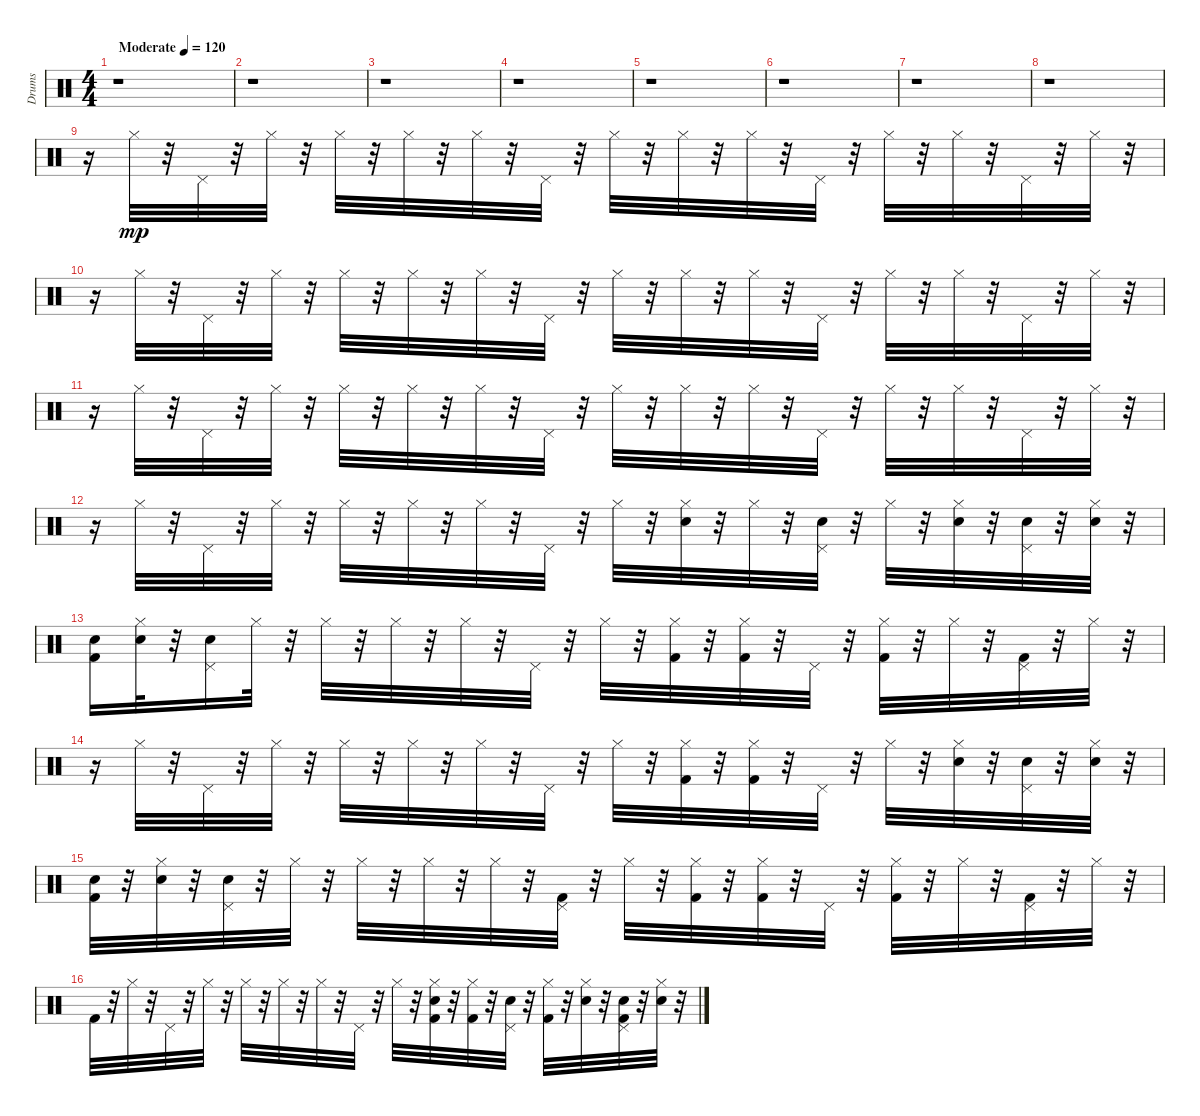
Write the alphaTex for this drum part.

\track ("Drums" "Drums") {instrument percussion}
\staff {score}
\articulation defaults
\ts (4 4)
\tempo (120 "Moderate")
\clef neutral
\ks c
r.1{dy mp} |
r.1 |
r.1 |
r.1 |
r.1 |
r.1 |
r.1 |
r.1 |
r.16 "Hi-Hat (closed)".32 r.32 "Pedal Hi-Hat (hit)".32 r.32 "Hi-Hat (closed)".32 r.32 "Hi-Hat (closed)".32 r.32 "Hi-Hat (closed)".32 r.32 "Hi-Hat (closed)".32 r.32 "Pedal Hi-Hat (hit)".32 r.32 "Hi-Hat (closed)".32 r.32 "Hi-Hat (closed)".32 r.32 "Hi-Hat (closed)".32 r.32 "Pedal Hi-Hat (hit)".32 r.32 "Hi-Hat (closed)".32 r.32 "Hi-Hat (closed)".32 r.32 "Pedal Hi-Hat (hit)".32 r.32 "Hi-Hat (closed)".32 r.32 |
r.16 "Hi-Hat (closed)".32 r.32 "Pedal Hi-Hat (hit)".32 r.32 "Hi-Hat (closed)".32 r.32 "Hi-Hat (closed)".32 r.32 "Hi-Hat (closed)".32 r.32 "Hi-Hat (closed)".32 r.32 "Pedal Hi-Hat (hit)".32 r.32 "Hi-Hat (closed)".32 r.32 "Hi-Hat (closed)".32 r.32 "Hi-Hat (closed)".32 r.32 "Pedal Hi-Hat (hit)".32 r.32 "Hi-Hat (closed)".32 r.32 "Hi-Hat (closed)".32 r.32 "Pedal Hi-Hat (hit)".32 r.32 "Hi-Hat (closed)".32 r.32 |
r.16 "Hi-Hat (closed)".32 r.32 "Pedal Hi-Hat (hit)".32 r.32 "Hi-Hat (closed)".32 r.32 "Hi-Hat (closed)".32 r.32 "Hi-Hat (closed)".32 r.32 "Hi-Hat (closed)".32 r.32 "Pedal Hi-Hat (hit)".32 r.32 "Hi-Hat (closed)".32 r.32 "Hi-Hat (closed)".32 r.32 "Hi-Hat (closed)".32 r.32 "Pedal Hi-Hat (hit)".32 r.32 "Hi-Hat (closed)".32 r.32 "Hi-Hat (closed)".32 r.32 "Pedal Hi-Hat (hit)".32 r.32 "Hi-Hat (closed)".32 r.32 |
r.16 "Hi-Hat (closed)".32 r.32 "Pedal Hi-Hat (hit)".32 r.32 "Hi-Hat (closed)".32 r.32 "Hi-Hat (closed)".32 r.32 "Hi-Hat (closed)".32 r.32 "Hi-Hat (closed)".32 r.32 "Pedal Hi-Hat (hit)".32 r.32 "Hi-Hat (closed)".32 r.32 ("Hi-Hat (closed)" "Hand Clap (hit)").32 r.32 "Hi-Hat (closed)".32 r.32 ("Pedal Hi-Hat (hit)" "Hand Clap (hit)").32 r.32 "Hi-Hat (closed)".32 r.32 ("Hi-Hat (closed)" "Hand Clap (hit)").32 r.32 ("Pedal Hi-Hat (hit)" "Hand Clap (hit)").32 r.32 ("Hi-Hat (closed)" "Hand Clap (hit)").32 r.32 |
("Kick (hit) 2" "Hand Clap (hit)").16 ("Hi-Hat (closed)" "Hand Clap (hit)").32 r.32 ("Pedal Hi-Hat (hit)" "Hand Clap (hit)").16 "Hi-Hat (closed)".32 r.32 "Hi-Hat (closed)".32 r.32 "Hi-Hat (closed)".32 r.32 "Hi-Hat (closed)".32 r.32 "Pedal Hi-Hat (hit)".32 r.32 "Hi-Hat (closed)".32 r.32 ("Hi-Hat (closed)" "Kick (hit) 2").32 r.32 ("Hi-Hat (closed)" "Kick (hit) 2").32 r.32 "Pedal Hi-Hat (hit)".32 r.32 ("Hi-Hat (closed)" "Kick (hit) 2").32 r.32 "Hi-Hat (closed)".32 r.32 ("Pedal Hi-Hat (hit)" "Kick (hit) 2").32 r.32 "Hi-Hat (closed)".32 r.32 |
r.16 "Hi-Hat (closed)".32 r.32 "Pedal Hi-Hat (hit)".32 r.32 "Hi-Hat (closed)".32 r.32 "Hi-Hat (closed)".32 r.32 "Hi-Hat (closed)".32 r.32 "Hi-Hat (closed)".32 r.32 "Pedal Hi-Hat (hit)".32 r.32 "Hi-Hat (closed)".32 r.32 ("Hi-Hat (closed)" "Kick (hit) 2").32 r.32 ("Hi-Hat (closed)" "Kick (hit) 2").32 r.32 "Pedal Hi-Hat (hit)".32 r.32 "Hi-Hat (closed)".32 r.32 ("Hi-Hat (closed)" "Hand Clap (hit)").32 r.32 ("Pedal Hi-Hat (hit)" "Hand Clap (hit)").32 r.32 ("Hi-Hat (closed)" "Hand Clap (hit)").32 r.32 |
("Kick (hit) 2" "Hand Clap (hit)").32 r.32 ("Hi-Hat (closed)" "Hand Clap (hit)").32 r.32 ("Pedal Hi-Hat (hit)" "Hand Clap (hit)").32 r.32 "Hi-Hat (closed)".32 r.32 "Hi-Hat (closed)".32 r.32 "Hi-Hat (closed)".32 r.32 "Hi-Hat (closed)".32 r.32 ("Pedal Hi-Hat (hit)" "Kick (hit) 2").32 r.32 "Hi-Hat (closed)".32 r.32 ("Hi-Hat (closed)" "Kick (hit) 2").32 r.32 ("Hi-Hat (closed)" "Kick (hit) 2").32 r.32 "Pedal Hi-Hat (hit)".32 r.32 ("Hi-Hat (closed)" "Kick (hit) 2").32 r.32 "Hi-Hat (closed)".32 r.32 ("Kick (hit) 2" "Pedal Hi-Hat (hit)").32 r.32 "Hi-Hat (closed)".32 r.32 |
"Kick (hit) 2".32 r.32 "Hi-Hat (closed)".32 r.32 "Pedal Hi-Hat (hit)".32 r.32 "Hi-Hat (closed)".32 r.32 "Hi-Hat (closed)".32 r.32 "Hi-Hat (closed)".32 r.32 "Hi-Hat (closed)".32 r.32 "Pedal Hi-Hat (hit)".32 r.32 "Hi-Hat (closed)".32 r.32 ("Hi-Hat (closed)" "Kick (hit) 2" "Hand Clap (hit)").32 r.32 ("Hi-Hat (closed)" "Kick (hit) 2").32 r.32 ("Pedal Hi-Hat (hit)" "Hand Clap (hit)").32 r.32 ("Hi-Hat (closed)" "Kick (hit) 2").32 r.32 ("Hi-Hat (closed)" "Hand Clap (hit)").32 r.32 ("Pedal Hi-Hat (hit)" "Kick (hit) 2" "Hand Clap (hit)").32 r.32 ("Hi-Hat (closed)" "Hand Clap (hit)").32 r.32
